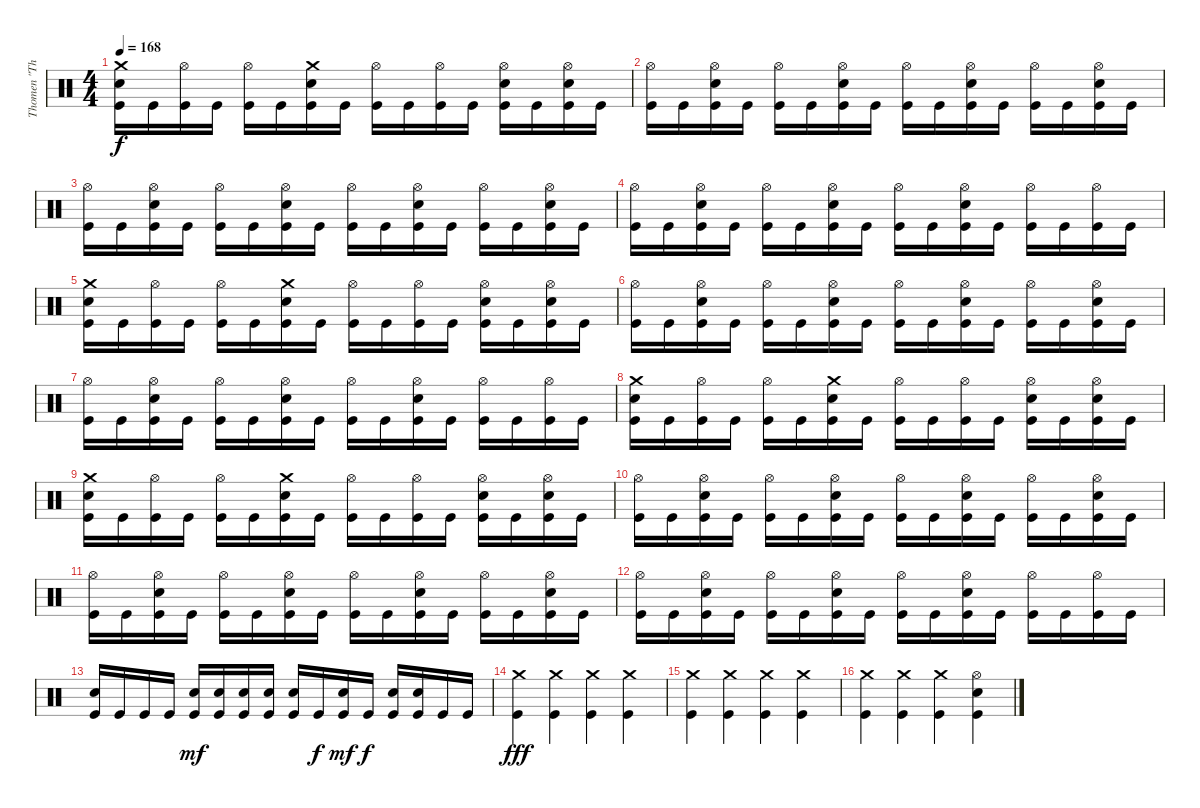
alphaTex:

\track ("Thomen \"The Omen\" Stauch" "Thomen \"Th") {instrument percussion}
\staff {score}
\articulation defaults
\ts (4 4)
\tempo 168
\clef neutral
\ks c
("Crash medium (hit)" "Snare (hit) 2" "Kick (hit)").16{dy f} "Kick (hit)".16 ("Hi-Hat (open)" "Kick (hit)").16 "Kick (hit)".16 ("Hi-Hat (open)" "Kick (hit)").16 "Kick (hit)".16 ("Crash medium (hit)" "Snare (hit) 2" "Kick (hit)").16 "Kick (hit)".16 ("Hi-Hat (open)" "Kick (hit)").16 "Kick (hit)".16 ("Hi-Hat (open)" "Kick (hit)").16 "Kick (hit)".16 ("Snare (hit) 2" "Hi-Hat (open)" "Kick (hit)").16 "Kick (hit)".16 ("Snare (hit) 2" "Hi-Hat (open)" "Kick (hit)").16 "Kick (hit)".16 |
("Hi-Hat (open)" "Kick (hit)").16 "Kick (hit)".16 ("Hi-Hat (open)" "Snare (hit) 2" "Kick (hit)").16 "Kick (hit)".16 ("Hi-Hat (open)" "Kick (hit)").16 "Kick (hit)".16 ("Hi-Hat (open)" "Snare (hit) 2" "Kick (hit)").16 "Kick (hit)".16 ("Hi-Hat (open)" "Kick (hit)").16 "Kick (hit)".16 ("Hi-Hat (open)" "Snare (hit) 2" "Kick (hit)").16 "Kick (hit)".16 ("Hi-Hat (open)" "Kick (hit)").16 "Kick (hit)".16 ("Hi-Hat (open)" "Snare (hit) 2" "Kick (hit)").16 "Kick (hit)".16 |
("Hi-Hat (open)" "Kick (hit)").16 "Kick (hit)".16 ("Hi-Hat (open)" "Snare (hit) 2" "Kick (hit)").16 "Kick (hit)".16 ("Hi-Hat (open)" "Kick (hit)").16 "Kick (hit)".16 ("Hi-Hat (open)" "Snare (hit) 2" "Kick (hit)").16 "Kick (hit)".16 ("Hi-Hat (open)" "Kick (hit)").16 "Kick (hit)".16 ("Hi-Hat (open)" "Snare (hit) 2" "Kick (hit)").16 "Kick (hit)".16 ("Hi-Hat (open)" "Kick (hit)").16 "Kick (hit)".16 ("Hi-Hat (open)" "Snare (hit) 2" "Kick (hit)").16 "Kick (hit)".16 |
("Hi-Hat (open)" "Kick (hit)").16 "Kick (hit)".16 ("Hi-Hat (open)" "Snare (hit) 2" "Kick (hit)").16 "Kick (hit)".16 ("Hi-Hat (open)" "Kick (hit)").16 "Kick (hit)".16 ("Hi-Hat (open)" "Snare (hit) 2" "Kick (hit)").16 "Kick (hit)".16 ("Hi-Hat (open)" "Kick (hit)").16 "Kick (hit)".16 ("Hi-Hat (open)" "Snare (hit) 2" "Kick (hit)").16 "Kick (hit)".16 ("Hi-Hat (open)" "Kick (hit)").16 "Kick (hit)".16 ("Hi-Hat (open)" "Kick (hit)").16 "Kick (hit)".16 |
("Crash medium (hit)" "Snare (hit) 2" "Kick (hit)").16 "Kick (hit)".16 ("Hi-Hat (open)" "Kick (hit)").16 "Kick (hit)".16 ("Hi-Hat (open)" "Kick (hit)").16 "Kick (hit)".16 ("Crash medium (hit)" "Snare (hit) 2" "Kick (hit)").16 "Kick (hit)".16 ("Hi-Hat (open)" "Kick (hit)").16 "Kick (hit)".16 ("Hi-Hat (open)" "Kick (hit)").16 "Kick (hit)".16 ("Snare (hit) 2" "Hi-Hat (open)" "Kick (hit)").16 "Kick (hit)".16 ("Snare (hit) 2" "Hi-Hat (open)" "Kick (hit)").16 "Kick (hit)".16 |
("Hi-Hat (open)" "Kick (hit)").16 "Kick (hit)".16 ("Hi-Hat (open)" "Snare (hit) 2" "Kick (hit)").16 "Kick (hit)".16 ("Hi-Hat (open)" "Kick (hit)").16 "Kick (hit)".16 ("Hi-Hat (open)" "Snare (hit) 2" "Kick (hit)").16 "Kick (hit)".16 ("Hi-Hat (open)" "Kick (hit)").16 "Kick (hit)".16 ("Hi-Hat (open)" "Snare (hit) 2" "Kick (hit)").16 "Kick (hit)".16 ("Hi-Hat (open)" "Kick (hit)").16 "Kick (hit)".16 ("Hi-Hat (open)" "Snare (hit) 2" "Kick (hit)").16 "Kick (hit)".16 |
("Hi-Hat (open)" "Kick (hit)").16 "Kick (hit)".16 ("Hi-Hat (open)" "Snare (hit) 2" "Kick (hit)").16 "Kick (hit)".16 ("Hi-Hat (open)" "Kick (hit)").16 "Kick (hit)".16 ("Hi-Hat (open)" "Snare (hit) 2" "Kick (hit)").16 "Kick (hit)".16 ("Hi-Hat (open)" "Kick (hit)").16 "Kick (hit)".16 ("Hi-Hat (open)" "Snare (hit) 2" "Kick (hit)").16 "Kick (hit)".16 ("Hi-Hat (open)" "Kick (hit)").16 "Kick (hit)".16 ("Hi-Hat (open)" "Kick (hit)").16 "Kick (hit)".16 |
("Crash medium (hit)" "Snare (hit) 2" "Kick (hit)").16 "Kick (hit)".16 ("Hi-Hat (open)" "Kick (hit)").16 "Kick (hit)".16 ("Hi-Hat (open)" "Kick (hit)").16 "Kick (hit)".16 ("Crash medium (hit)" "Snare (hit) 2" "Kick (hit)").16 "Kick (hit)".16 ("Hi-Hat (open)" "Kick (hit)").16 "Kick (hit)".16 ("Hi-Hat (open)" "Kick (hit)").16 "Kick (hit)".16 ("Snare (hit) 2" "Hi-Hat (open)" "Kick (hit)").16 "Kick (hit)".16 ("Snare (hit) 2" "Hi-Hat (open)" "Kick (hit)").16 "Kick (hit)".16 |
("Crash medium (hit)" "Snare (hit) 2" "Kick (hit)").16 "Kick (hit)".16 ("Hi-Hat (open)" "Kick (hit)").16 "Kick (hit)".16 ("Hi-Hat (open)" "Kick (hit)").16 "Kick (hit)".16 ("Crash medium (hit)" "Snare (hit) 2" "Kick (hit)").16 "Kick (hit)".16 ("Hi-Hat (open)" "Kick (hit)").16 "Kick (hit)".16 ("Hi-Hat (open)" "Kick (hit)").16 "Kick (hit)".16 ("Snare (hit) 2" "Hi-Hat (open)" "Kick (hit)").16 "Kick (hit)".16 ("Snare (hit) 2" "Hi-Hat (open)" "Kick (hit)").16 "Kick (hit)".16 |
("Hi-Hat (open)" "Kick (hit)").16 "Kick (hit)".16 ("Hi-Hat (open)" "Snare (hit) 2" "Kick (hit)").16 "Kick (hit)".16 ("Hi-Hat (open)" "Kick (hit)").16 "Kick (hit)".16 ("Hi-Hat (open)" "Snare (hit) 2" "Kick (hit)").16 "Kick (hit)".16 ("Hi-Hat (open)" "Kick (hit)").16 "Kick (hit)".16 ("Hi-Hat (open)" "Snare (hit) 2" "Kick (hit)").16 "Kick (hit)".16 ("Hi-Hat (open)" "Kick (hit)").16 "Kick (hit)".16 ("Hi-Hat (open)" "Snare (hit) 2" "Kick (hit)").16 "Kick (hit)".16 |
("Hi-Hat (open)" "Kick (hit)").16 "Kick (hit)".16 ("Hi-Hat (open)" "Snare (hit) 2" "Kick (hit)").16 "Kick (hit)".16 ("Hi-Hat (open)" "Kick (hit)").16 "Kick (hit)".16 ("Hi-Hat (open)" "Snare (hit) 2" "Kick (hit)").16 "Kick (hit)".16 ("Hi-Hat (open)" "Kick (hit)").16 "Kick (hit)".16 ("Hi-Hat (open)" "Snare (hit) 2" "Kick (hit)").16 "Kick (hit)".16 ("Hi-Hat (open)" "Kick (hit)").16 "Kick (hit)".16 ("Hi-Hat (open)" "Snare (hit) 2" "Kick (hit)").16 "Kick (hit)".16 |
("Hi-Hat (open)" "Kick (hit)").16 "Kick (hit)".16 ("Hi-Hat (open)" "Snare (hit) 2" "Kick (hit)").16 "Kick (hit)".16 ("Hi-Hat (open)" "Kick (hit)").16 "Kick (hit)".16 ("Hi-Hat (open)" "Snare (hit) 2" "Kick (hit)").16 "Kick (hit)".16 ("Hi-Hat (open)" "Kick (hit)").16 "Kick (hit)".16 ("Hi-Hat (open)" "Snare (hit) 2" "Kick (hit)").16 "Kick (hit)".16 ("Hi-Hat (open)" "Kick (hit)").16 "Kick (hit)".16 ("Hi-Hat (open)" "Kick (hit)").16 "Kick (hit)".16 |
("Snare (hit) 2" "Kick (hit)").16 "Kick (hit)".16 "Kick (hit)".16 "Kick (hit)".16 ("Snare (hit) 2" "Kick (hit)").16{dy mf} ("Snare (hit) 2" "Kick (hit)").16 ("Snare (hit) 2" "Kick (hit)").16 ("Snare (hit) 2" "Kick (hit)").16 ("Snare (hit) 2" "Kick (hit)").16 "Kick (hit)".16{dy f} ("Snare (hit) 2" "Kick (hit)").16{dy mf} "Kick (hit)".16{dy f} ("Snare (hit) 2" "Kick (hit)").16 ("Snare (hit) 2" "Kick (hit)").16 "Kick (hit)".16 "Kick (hit)".16 |
("Crash medium (hit)" "Kick (hit)").4{dy fff} ("Crash medium (hit)" "Kick (hit)").4 ("Crash medium (hit)" "Kick (hit)").4 ("Crash medium (hit)" "Kick (hit)").4 |
("Crash medium (hit)" "Kick (hit)").4 ("Crash medium (hit)" "Kick (hit)").4 ("Crash medium (hit)" "Kick (hit)").4 ("Crash medium (hit)" "Kick (hit)").4 |
("Crash medium (hit)" "Kick (hit)").4 ("Crash medium (hit)" "Kick (hit)").4 ("Crash medium (hit)" "Kick (hit)").4 ("Hi-Hat (open)" "Snare (hit) 2" "Kick (hit)").4
